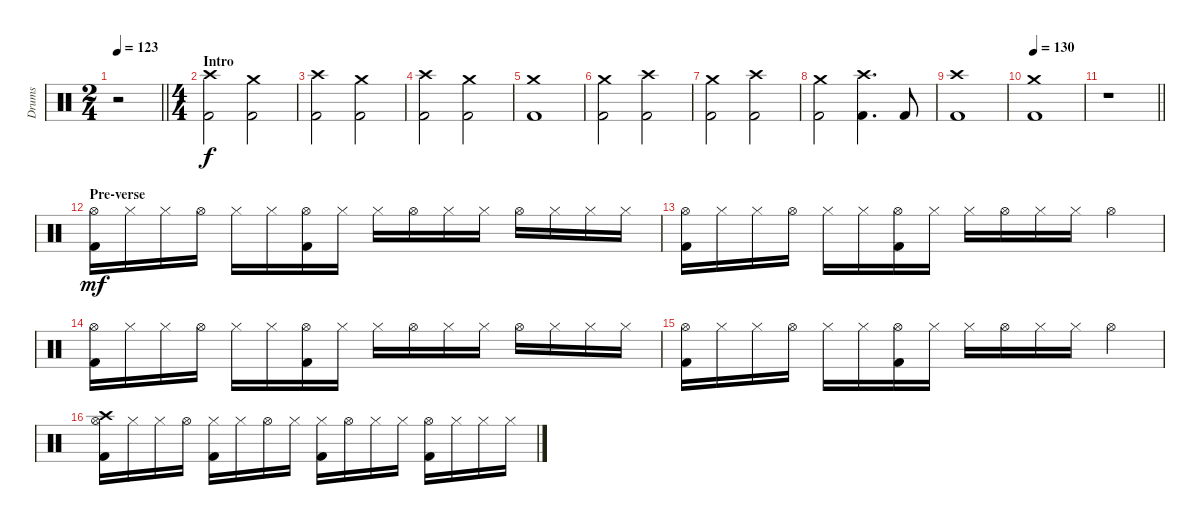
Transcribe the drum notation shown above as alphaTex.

\track ("Drums" "Drums") {instrument percussion}
\staff {score}
\articulation defaults
\ts (2 4)
\tempo 123
\clef neutral
\barLineRight lightlight
\ks c
r.2{dy f} |
\ts (4 4)
\section ("" "Intro")
("Crash high (hit)" "Kick (hit) 2").2 ("Crash medium (hit)" "Kick (hit) 2").2 |
("Crash high (hit)" "Kick (hit) 2").2 ("Crash medium (hit)" "Kick (hit) 2").2 |
("Crash high (hit)" "Kick (hit) 2").2 ("Crash medium (hit)" "Kick (hit) 2").2 |
("Crash medium (hit)" "Kick (hit) 2").1 |
("Crash medium (hit)" "Kick (hit) 2").2 ("Crash high (hit)" "Kick (hit) 2").2 |
("Crash medium (hit)" "Kick (hit) 2").2 ("Crash high (hit)" "Kick (hit) 2").2 |
("Crash medium (hit)" "Kick (hit) 2").2 ("Crash high (hit)" "Kick (hit) 2").4{d} "Kick (hit) 2".8 |
("Crash high (hit)" "Kick (hit) 2").1 |
\tempo 130
("Crash medium (hit)" "Kick (hit) 2").1 |
\barLineRight lightlight
r.1 |
\section ("" "Pre-verse")
("Hi-Hat (open)" "Kick (hit) 2").16{dy mf} "Hi-Hat (closed)".16 "Hi-Hat (closed)".16 "Hi-Hat (open)".16 "Hi-Hat (closed)".16 "Hi-Hat (closed)".16 ("Hi-Hat (open)" "Kick (hit) 2").16 "Hi-Hat (closed)".16 "Hi-Hat (closed)".16 "Hi-Hat (open)".16 "Hi-Hat (closed)".16 "Hi-Hat (closed)".16 "Hi-Hat (open)".16 "Hi-Hat (closed)".16 "Hi-Hat (closed)".16 "Hi-Hat (closed)".16 |
("Hi-Hat (open)" "Kick (hit) 2").16 "Hi-Hat (closed)".16 "Hi-Hat (closed)".16 "Hi-Hat (open)".16 "Hi-Hat (closed)".16 "Hi-Hat (closed)".16 ("Hi-Hat (open)" "Kick (hit) 2").16 "Hi-Hat (closed)".16 "Hi-Hat (closed)".16 "Hi-Hat (open)".16 "Hi-Hat (closed)".16 "Hi-Hat (closed)".16 "Hi-Hat (open)".4 |
("Hi-Hat (open)" "Kick (hit) 2").16 "Hi-Hat (closed)".16 "Hi-Hat (closed)".16 "Hi-Hat (open)".16 "Hi-Hat (closed)".16 "Hi-Hat (closed)".16 ("Hi-Hat (open)" "Kick (hit) 2").16 "Hi-Hat (closed)".16 "Hi-Hat (closed)".16 "Hi-Hat (open)".16 "Hi-Hat (closed)".16 "Hi-Hat (closed)".16 "Hi-Hat (open)".16 "Hi-Hat (closed)".16 "Hi-Hat (closed)".16 "Hi-Hat (closed)".16 |
("Hi-Hat (open)" "Kick (hit) 2").16 "Hi-Hat (closed)".16 "Hi-Hat (closed)".16 "Hi-Hat (open)".16 "Hi-Hat (closed)".16 "Hi-Hat (closed)".16 ("Hi-Hat (open)" "Kick (hit) 2").16 "Hi-Hat (closed)".16 "Hi-Hat (closed)".16 "Hi-Hat (open)".16 "Hi-Hat (closed)".16 "Hi-Hat (closed)".16 "Hi-Hat (open)".4 |
("Crash high (hit)" "Hi-Hat (open)" "Kick (hit) 2").16 "Hi-Hat (closed)".16 "Hi-Hat (closed)".16 "Hi-Hat (open)".16 ("Hi-Hat (closed)" "Kick (hit) 2").16 "Hi-Hat (closed)".16 "Hi-Hat (open)".16 "Hi-Hat (closed)".16 ("Hi-Hat (closed)" "Kick (hit) 2").16 "Hi-Hat (open)".16 "Hi-Hat (closed)".16 "Hi-Hat (closed)".16 ("Hi-Hat (open)" "Kick (hit) 2").16 "Hi-Hat (closed)".16 "Hi-Hat (closed)".16 "Hi-Hat (closed)".16
